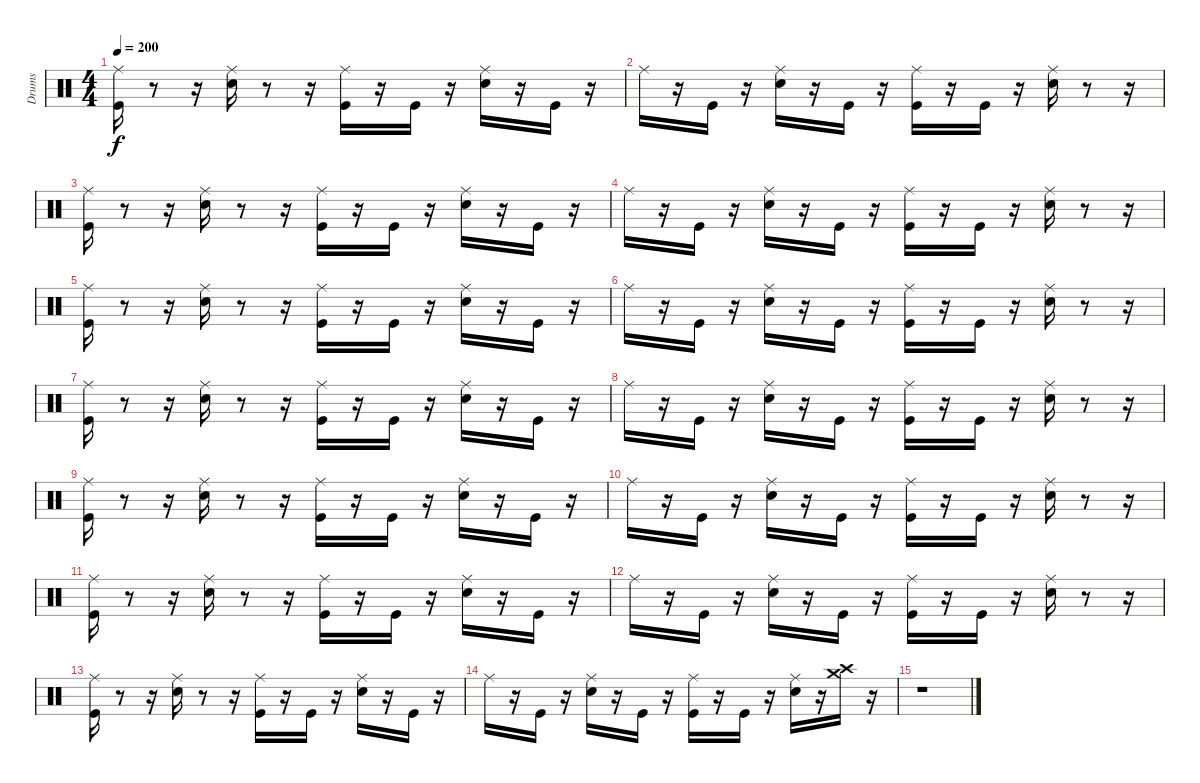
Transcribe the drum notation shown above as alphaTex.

\track ("Drums" "Drums") {instrument percussion}
\staff {score}
\articulation defaults
\ts (4 4)
\tempo 200
\clef neutral
\ks c
("Ride (middle)" "Kick (hit)").16{dy f} r.8 r.16 ("Ride (middle)" "Snare (hit) 2").16 r.8 r.16 ("Ride (middle)" "Kick (hit)").16 r.16 "Kick (hit)".16 r.16 ("Ride (middle)" "Snare (hit) 2").16 r.16 "Kick (hit)".16 r.16 |
"Ride (middle)".16 r.16 "Kick (hit)".16 r.16 ("Ride (middle)" "Snare (hit) 2").16 r.16 "Kick (hit)".16 r.16 ("Ride (middle)" "Kick (hit)").16 r.16 "Kick (hit)".16 r.16 ("Ride (middle)" "Snare (hit) 2").16 r.8 r.16 |
("Ride (middle)" "Kick (hit)").16 r.8 r.16 ("Ride (middle)" "Snare (hit) 2").16 r.8 r.16 ("Ride (middle)" "Kick (hit)").16 r.16 "Kick (hit)".16 r.16 ("Ride (middle)" "Snare (hit) 2").16 r.16 "Kick (hit)".16 r.16 |
"Ride (middle)".16 r.16 "Kick (hit)".16 r.16 ("Ride (middle)" "Snare (hit) 2").16 r.16 "Kick (hit)".16 r.16 ("Ride (middle)" "Kick (hit)").16 r.16 "Kick (hit)".16 r.16 ("Ride (middle)" "Snare (hit) 2").16 r.8 r.16 |
("Ride (middle)" "Kick (hit)").16 r.8 r.16 ("Ride (middle)" "Snare (hit) 2").16 r.8 r.16 ("Ride (middle)" "Kick (hit)").16 r.16 "Kick (hit)".16 r.16 ("Ride (middle)" "Snare (hit) 2").16 r.16 "Kick (hit)".16 r.16 |
"Ride (middle)".16 r.16 "Kick (hit)".16 r.16 ("Ride (middle)" "Snare (hit) 2").16 r.16 "Kick (hit)".16 r.16 ("Ride (middle)" "Kick (hit)").16 r.16 "Kick (hit)".16 r.16 ("Ride (middle)" "Snare (hit) 2").16 r.8 r.16 |
("Ride (middle)" "Kick (hit)").16 r.8 r.16 ("Ride (middle)" "Snare (hit) 2").16 r.8 r.16 ("Ride (middle)" "Kick (hit)").16 r.16 "Kick (hit)".16 r.16 ("Ride (middle)" "Snare (hit) 2").16 r.16 "Kick (hit)".16 r.16 |
"Ride (middle)".16 r.16 "Kick (hit)".16 r.16 ("Ride (middle)" "Snare (hit) 2").16 r.16 "Kick (hit)".16 r.16 ("Ride (middle)" "Kick (hit)").16 r.16 "Kick (hit)".16 r.16 ("Ride (middle)" "Snare (hit) 2").16 r.8 r.16 |
("Ride (middle)" "Kick (hit)").16 r.8 r.16 ("Ride (middle)" "Snare (hit) 2").16 r.8 r.16 ("Ride (middle)" "Kick (hit)").16 r.16 "Kick (hit)".16 r.16 ("Ride (middle)" "Snare (hit) 2").16 r.16 "Kick (hit)".16 r.16 |
"Ride (middle)".16 r.16 "Kick (hit)".16 r.16 ("Ride (middle)" "Snare (hit) 2").16 r.16 "Kick (hit)".16 r.16 ("Ride (middle)" "Kick (hit)").16 r.16 "Kick (hit)".16 r.16 ("Ride (middle)" "Snare (hit) 2").16 r.8 r.16 |
("Ride (middle)" "Kick (hit)").16 r.8 r.16 ("Ride (middle)" "Snare (hit) 2").16 r.8 r.16 ("Ride (middle)" "Kick (hit)").16 r.16 "Kick (hit)".16 r.16 ("Ride (middle)" "Snare (hit) 2").16 r.16 "Kick (hit)".16 r.16 |
"Ride (middle)".16 r.16 "Kick (hit)".16 r.16 ("Ride (middle)" "Snare (hit) 2").16 r.16 "Kick (hit)".16 r.16 ("Ride (middle)" "Kick (hit)").16 r.16 "Kick (hit)".16 r.16 ("Ride (middle)" "Snare (hit) 2").16 r.8 r.16 |
("Ride (middle)" "Kick (hit)").16 r.8 r.16 ("Ride (middle)" "Snare (hit) 2").16 r.8 r.16 ("Ride (middle)" "Kick (hit)").16 r.16 "Kick (hit)".16 r.16 ("Ride (middle)" "Snare (hit) 2").16 r.16 "Kick (hit)".16 r.16 |
"Ride (middle)".16 r.16 "Kick (hit)".16 r.16 ("Ride (middle)" "Snare (hit) 2").16 r.16 "Kick (hit)".16 r.16 ("Ride (middle)" "Kick (hit)").16 r.16 "Kick (hit)".16 r.16 ("Ride (middle)" "Snare (hit) 2").16 r.16 ("Crash high (hit)" "Crash medium (hit)").16 r.16 |
r.1
